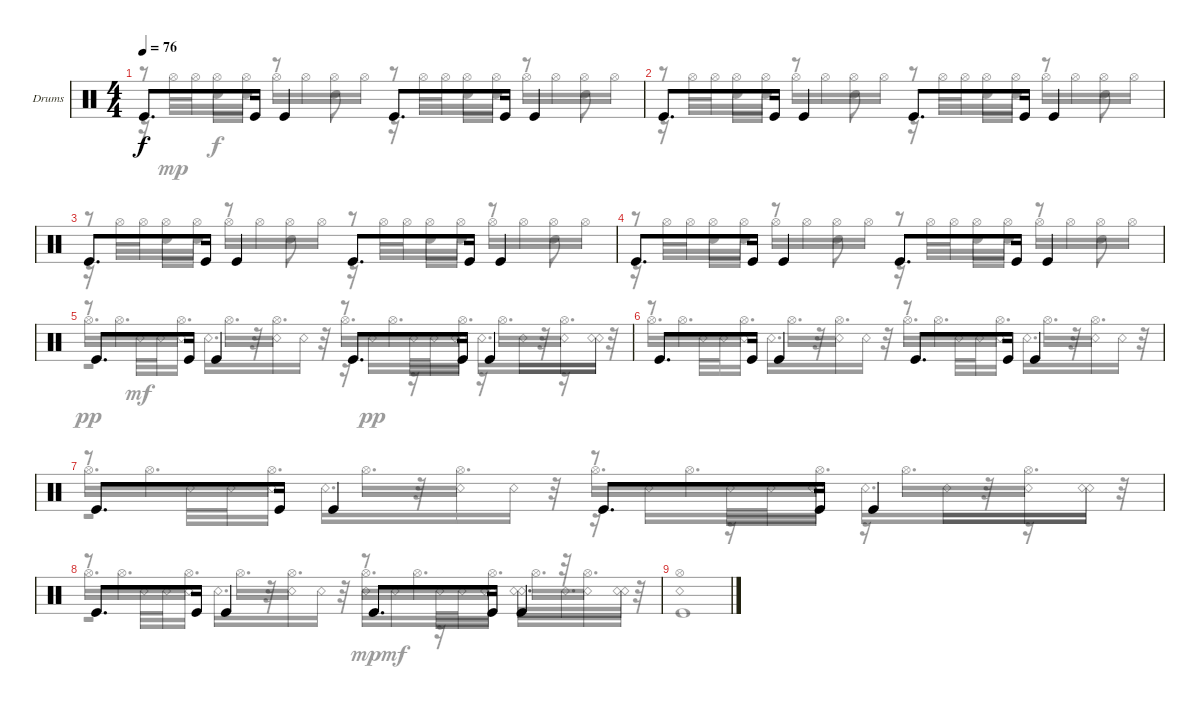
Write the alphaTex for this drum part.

\bracketExtendMode groupsimilarinstruments
\firstSystemTrackNameOrientation horizontal
\otherSystemsTrackNameOrientation horizontal
\track ("Drumkit" "Drums") {instrument percussion}
\staff {score}
\articulation defaults
\voice
\ts (4 4)
\tempo 76
\clef neutral
\ks c "Kick (hit)".8{d dy f} "Kick (hit)".16 "Kick (hit)".4 "Kick (hit)".8{d} "Kick (hit)".16 "Kick (hit)".4
|
"Kick (hit)".8{d} "Kick (hit)".16 "Kick (hit)".4 "Kick (hit)".8{d} "Kick (hit)".16 "Kick (hit)".4 |
"Kick (hit)".8{d} "Kick (hit)".16 "Kick (hit)".4 "Kick (hit)".8{d} "Kick (hit)".16 "Kick (hit)".4 |
"Kick (hit)".8{d} "Kick (hit)".16 "Kick (hit)".4 "Kick (hit)".8{d} "Kick (hit)".16 "Kick (hit)".4 |
"Kick (hit)".8{d} "Kick (hit)".16 "Kick (hit)".4 "Kick (hit)".8{d} "Kick (hit)".16 "Kick (hit)".4 |
"Kick (hit)".8{d} "Kick (hit)".16 "Kick (hit)".4 "Kick (hit)".8{d} "Kick (hit)".16 "Kick (hit)".4 |
"Kick (hit)".8{d} "Kick (hit)".16 "Kick (hit)".4 "Kick (hit)".8{d} "Kick (hit)".16 "Kick (hit)".4 |
"Kick (hit)".8{d} "Kick (hit)".16 "Kick (hit)".4 "Kick (hit)".8{d} "Kick (hit)".16 "Kick (hit)".4 |
|
\voice
\clef neutral
\ottava regular
\simile none
\ks c
r.8{dy f} "Snare (hit) 2".16 "Snare (hit) 2".16 r.8 "Snare (hit) 2".8 r.8 "Snare (hit) 2".16 "Snare (hit) 2".16 r.8 "Snare (hit) 2".8 |
r.8 "Snare (hit) 2".16 "Snare (hit) 2".16 r.8 "Snare (hit) 2".8 r.8 "Snare (hit) 2".16 "Snare (hit) 2".16 r.8 "Snare (hit) 2".8 |
r.8 "Snare (hit) 2".16 "Snare (hit) 2".16 r.8 "Snare (hit) 2".8 r.8 "Snare (hit) 2".16 "Snare (hit) 2".16 r.8 "Snare (hit) 2".8 |
r.8 "Snare (hit) 2".16 "Snare (hit) 2".16 r.8 "Snare (hit) 2".8 r.8 "Snare (hit) 2".16 "Snare (hit) 2".16 r.8 "Snare (hit) 2".8 |
r.8 "Snare (rim shot)".32{dy mf} "Snare (rim shot)".32 "Snare (rim shot)".16 "Snare (rim shot)".16{d} r.32 "Snare (rim shot)".16 "Snare (rim shot)".16 r.8 "Snare (rim shot)".32 "Snare (rim shot)".32 "Snare (rim shot)".16 "Snare (rim shot)".16{d} r.32 "Snare (rim shot)".16 "Snare (rim shot)".16 |
r.8 "Snare (rim shot)".32 "Snare (rim shot)".32 "Snare (rim shot)".16 "Snare (rim shot)".16{d} r.32 "Snare (rim shot)".16 "Snare (rim shot)".16 r.8 "Snare (rim shot)".32 "Snare (rim shot)".32 "Snare (rim shot)".16 "Snare (rim shot)".16{d} r.32 "Snare (rim shot)".16 "Snare (rim shot)".16 |
r.8 "Snare (rim shot)".32 "Snare (rim shot)".32 "Snare (rim shot)".16 "Snare (rim shot)".16{d} r.32 "Snare (rim shot)".16 "Snare (rim shot)".16 r.8 "Snare (rim shot)".32 "Snare (rim shot)".32 "Snare (rim shot)".16 "Snare (rim shot)".16{d} r.32 "Snare (rim shot)".16 "Snare (rim shot)".16 |
r.8 "Snare (rim shot)".32 "Snare (rim shot)".32 "Snare (rim shot)".16 "Snare (rim shot)".16{d} r.32 "Snare (rim shot)".16 "Snare (rim shot)".16 r.8 "Snare (rim shot)".32 "Snare (rim shot)".32 "Snare (rim shot)".16 "Snare (rim shot)".16{d} r.32 "Snare (rim shot)".16 "Snare (rim shot)".16 |
|
\voice
\clef neutral
\ottava regular
\simile none
\ks c
r.16{dy mp} "Hi-Hat (open)".32 "Hi-Hat (open)".32 "Hi-Hat (open)".16 "Hi-Hat (open)".16 "Hi-Hat (open)".16 "Hi-Hat (open)".16 "Hi-Hat (open)".16 "Hi-Hat (open)".16 r.16 "Hi-Hat (open)".32 "Hi-Hat (open)".32 "Hi-Hat (open)".16 "Hi-Hat (open)".16 "Hi-Hat (open)".16 "Hi-Hat (open)".16 "Hi-Hat (open)".16 "Hi-Hat (open)".16 |
r.16 "Hi-Hat (open)".32 "Hi-Hat (open)".32 "Hi-Hat (open)".16 "Hi-Hat (open)".16 "Hi-Hat (open)".16 "Hi-Hat (open)".16 "Hi-Hat (open)".16 "Hi-Hat (open)".16 r.16 "Hi-Hat (open)".32 "Hi-Hat (open)".32 "Hi-Hat (open)".16 "Hi-Hat (open)".16 "Hi-Hat (open)".16 "Hi-Hat (open)".16 "Hi-Hat (open)".16 "Hi-Hat (open)".16 |
r.16 "Hi-Hat (open)".32 "Hi-Hat (open)".32 "Hi-Hat (open)".16 "Hi-Hat (open)".16 "Hi-Hat (open)".16 "Hi-Hat (open)".16 "Hi-Hat (open)".16 "Hi-Hat (open)".16 r.16 "Hi-Hat (open)".32 "Hi-Hat (open)".32 "Hi-Hat (open)".16 "Hi-Hat (open)".16 "Hi-Hat (open)".16 "Hi-Hat (open)".16 "Hi-Hat (open)".16 "Hi-Hat (open)".16 |
r.16 "Hi-Hat (open)".32 "Hi-Hat (open)".32 "Hi-Hat (open)".16 "Hi-Hat (open)".16 "Hi-Hat (open)".16 "Hi-Hat (open)".16 "Hi-Hat (open)".16 "Hi-Hat (open)".16 r.16 "Hi-Hat (open)".32 "Hi-Hat (open)".32 "Hi-Hat (open)".16 "Hi-Hat (open)".16 "Hi-Hat (open)".16 "Hi-Hat (open)".16 "Hi-Hat (open)".16 "Hi-Hat (open)".16 |
"Hi-Hat (open)".16{d dy pp} "Hi-Hat (open)".16{d} "Hi-Hat (open)".16{d} "Hi-Hat (open)".16{d} "Hi-Hat (open)".16{d} r.32 "Hi-Hat (open)".16{d} "Hi-Hat (open)".16{d} "Hi-Hat (open)".16{d} "Hi-Hat (open)".16{d} "Hi-Hat (open)".16{d} r.32 |
"Hi-Hat (open)".16{d} "Hi-Hat (open)".16{d} "Hi-Hat (open)".16{d} "Hi-Hat (open)".16{d} "Hi-Hat (open)".16{d} r.32 "Hi-Hat (open)".16{d} "Hi-Hat (open)".16{d} "Hi-Hat (open)".16{d} "Hi-Hat (open)".16{d} "Hi-Hat (open)".16{d} r.32 |
"Hi-Hat (open)".16{d} "Hi-Hat (open)".16{d} "Hi-Hat (open)".16{d} "Hi-Hat (open)".16{d} "Hi-Hat (open)".16{d} r.32 "Hi-Hat (open)".16{d} "Hi-Hat (open)".16{d} "Hi-Hat (open)".16{d} "Hi-Hat (open)".16{d} "Hi-Hat (open)".16{d} r.32 |
"Hi-Hat (open)".16{d} "Hi-Hat (open)".16{d} "Hi-Hat (open)".16{d} "Hi-Hat (open)".16{d} "Hi-Hat (open)".16{d} r.32 "Hi-Hat (open)".16{d} "Hi-Hat (open)".16{d} "Hi-Hat (open)".16{d} "Hi-Hat (open)".16{d} "Hi-Hat (open)".16{d} r.32 |
|
\voice
\clef neutral
\ottava regular
\simile none
\ks c
|
|
|
|
r.2 r.16 "Snare (rim shot)".16 r.16 "Snare (rim shot)".16 r.16 "Snare (rim shot)".16 r.16 "Snare (rim shot)".16 |
|
r.2 r.16 "Snare (rim shot)".16 r.16 "Snare (rim shot)".16 r.16 "Snare (rim shot)".16 r.16 "Snare (rim shot)".16 |
r.2 "Snare (rim shot)".16{dy mp} "Snare (rim shot)".16{dy mf} r.16 "Snare (rim shot)".16 "Snare (rim shot)".16{d} "Snare (rim shot)".16{d} "Snare (rim shot)".16 |
("Snare (rim shot)" "Hi-Hat (open)" "Kick (hit)").1 |
